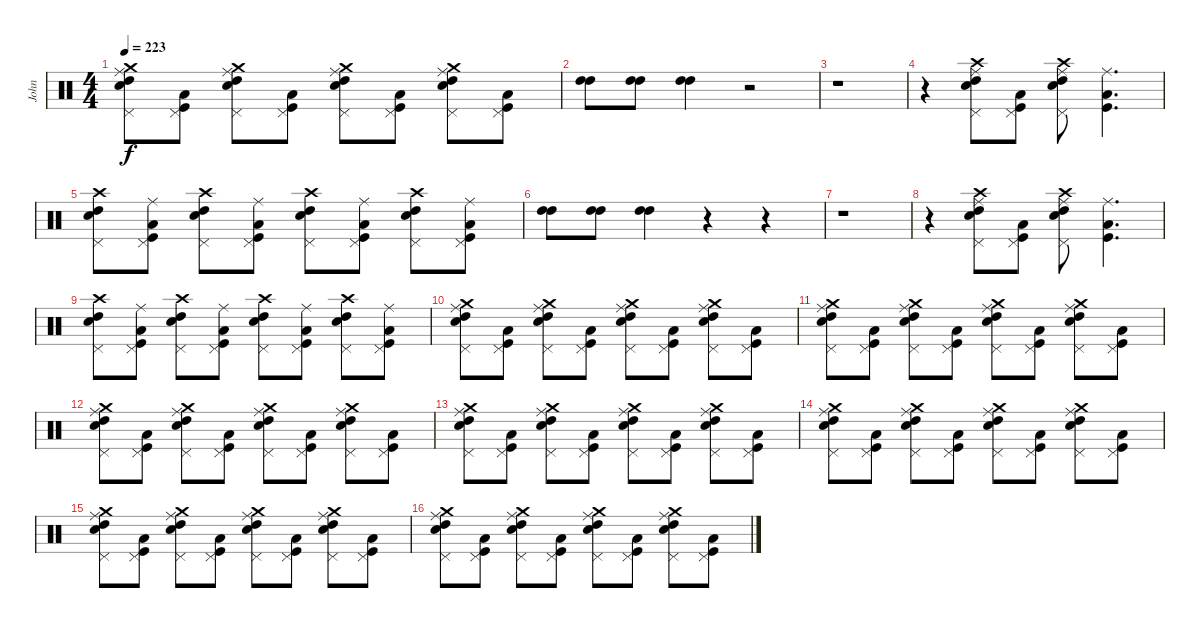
\track ("John" "John") {instrument percussion}
\staff {score}
\articulation defaults
\ts (4 4)
\tempo 223
\clef neutral
\ks c
("Crash medium (hit)" "Ride (middle)" "Snare (hit) 2" "High Tom (hit)" "Pedal Hi-Hat (hit)").8{dy f} ("Kick (hit)" "Low Tom (hit)" "Pedal Hi-Hat (hit)").8 ("Crash medium (hit)" "Ride (middle)" "Snare (hit) 2" "High Tom (hit)" "Pedal Hi-Hat (hit)").8 ("Kick (hit)" "Low Tom (hit)" "Pedal Hi-Hat (hit)").8 ("Crash medium (hit)" "Ride (middle)" "Snare (hit) 2" "High Tom (hit)" "Pedal Hi-Hat (hit)").8 ("Kick (hit)" "Low Tom (hit)" "Pedal Hi-Hat (hit)").8 ("Crash medium (hit)" "Ride (middle)" "Snare (hit) 2" "High Tom (hit)" "Pedal Hi-Hat (hit)").8 ("Kick (hit)" "Low Tom (hit)" "Pedal Hi-Hat (hit)").8 |
("High Tom (hit)" "High Tom (hit)").8 ("High Tom (hit)" "High Tom (hit)").8 ("High Tom (hit)" "High Tom (hit)").4 r.2 |
r.1 |
r.4 ("Crash high (hit)" "Ride (middle)" "Snare (hit) 2" "High Tom (hit)" "Pedal Hi-Hat (hit)").8 ("Kick (hit)" "Low Tom (hit)" "Pedal Hi-Hat (hit)").8 ("Crash high (hit)" "Ride (middle)" "Snare (hit) 2" "High Tom (hit)" "Pedal Hi-Hat (hit)").8 ("Ride (middle)" "Kick (hit)" "Low Tom (hit)").4{d} |
("Crash high (hit)" "Snare (hit) 2" "High Tom (hit)" "Pedal Hi-Hat (hit)").8 ("Ride (middle)" "Kick (hit)" "Low Tom (hit)" "Pedal Hi-Hat (hit)").8 ("Crash high (hit)" "Snare (hit) 2" "High Tom (hit)" "Pedal Hi-Hat (hit)").8 ("Ride (middle)" "Kick (hit)" "Low Tom (hit)" "Pedal Hi-Hat (hit)").8 ("Crash high (hit)" "Snare (hit) 2" "High Tom (hit)" "Pedal Hi-Hat (hit)").8 ("Ride (middle)" "Kick (hit)" "Low Tom (hit)" "Pedal Hi-Hat (hit)").8 ("Crash high (hit)" "Snare (hit) 2" "High Tom (hit)" "Pedal Hi-Hat (hit)").8 ("Ride (middle)" "Kick (hit)" "Low Tom (hit)" "Pedal Hi-Hat (hit)").8 |
("High Tom (hit)" "High Tom (hit)").8 ("High Tom (hit)" "High Tom (hit)").8 ("High Tom (hit)" "High Tom (hit)").4 r.4 r.4 |
r.1 |
r.4 ("Crash high (hit)" "Ride (middle)" "Snare (hit) 2" "High Tom (hit)" "Pedal Hi-Hat (hit)").8 ("Kick (hit)" "Low Tom (hit)" "Pedal Hi-Hat (hit)").8 ("Crash high (hit)" "Ride (middle)" "Snare (hit) 2" "High Tom (hit)" "Pedal Hi-Hat (hit)").8 ("Ride (middle)" "Kick (hit)" "Low Tom (hit)").4{d} |
("Crash high (hit)" "Snare (hit) 2" "High Tom (hit)" "Pedal Hi-Hat (hit)").8 ("Ride (middle)" "Kick (hit)" "Low Tom (hit)" "Pedal Hi-Hat (hit)").8 ("Crash high (hit)" "Snare (hit) 2" "High Tom (hit)" "Pedal Hi-Hat (hit)").8 ("Ride (middle)" "Kick (hit)" "Low Tom (hit)" "Pedal Hi-Hat (hit)").8 ("Crash high (hit)" "Snare (hit) 2" "High Tom (hit)" "Pedal Hi-Hat (hit)").8 ("Ride (middle)" "Kick (hit)" "Low Tom (hit)" "Pedal Hi-Hat (hit)").8 ("Crash high (hit)" "Snare (hit) 2" "High Tom (hit)" "Pedal Hi-Hat (hit)").8 ("Ride (middle)" "Kick (hit)" "Low Tom (hit)" "Pedal Hi-Hat (hit)").8 |
("Crash medium (hit)" "Ride (middle)" "Snare (hit) 2" "High Tom (hit)" "Pedal Hi-Hat (hit)").8 ("Kick (hit)" "Low Tom (hit)" "Pedal Hi-Hat (hit)").8 ("Crash medium (hit)" "Ride (middle)" "Snare (hit) 2" "High Tom (hit)" "Pedal Hi-Hat (hit)").8 ("Kick (hit)" "Low Tom (hit)" "Pedal Hi-Hat (hit)").8 ("Crash medium (hit)" "Ride (middle)" "Snare (hit) 2" "High Tom (hit)" "Pedal Hi-Hat (hit)").8 ("Kick (hit)" "Low Tom (hit)" "Pedal Hi-Hat (hit)").8 ("Crash medium (hit)" "Ride (middle)" "Snare (hit) 2" "High Tom (hit)" "Pedal Hi-Hat (hit)").8 ("Kick (hit)" "Low Tom (hit)" "Pedal Hi-Hat (hit)").8 |
("Crash medium (hit)" "Ride (middle)" "Snare (hit) 2" "High Tom (hit)" "Pedal Hi-Hat (hit)").8 ("Kick (hit)" "Low Tom (hit)" "Pedal Hi-Hat (hit)").8 ("Crash medium (hit)" "Ride (middle)" "Snare (hit) 2" "High Tom (hit)" "Pedal Hi-Hat (hit)").8 ("Kick (hit)" "Low Tom (hit)" "Pedal Hi-Hat (hit)").8 ("Crash medium (hit)" "Ride (middle)" "Snare (hit) 2" "High Tom (hit)" "Pedal Hi-Hat (hit)").8 ("Kick (hit)" "Low Tom (hit)" "Pedal Hi-Hat (hit)").8 ("Crash medium (hit)" "Ride (middle)" "Snare (hit) 2" "High Tom (hit)" "Pedal Hi-Hat (hit)").8 ("Kick (hit)" "Low Tom (hit)" "Pedal Hi-Hat (hit)").8 |
("Crash medium (hit)" "Ride (middle)" "Snare (hit) 2" "High Tom (hit)" "Pedal Hi-Hat (hit)").8 ("Kick (hit)" "Low Tom (hit)" "Pedal Hi-Hat (hit)").8 ("Crash medium (hit)" "Ride (middle)" "Snare (hit) 2" "High Tom (hit)" "Pedal Hi-Hat (hit)").8 ("Kick (hit)" "Low Tom (hit)" "Pedal Hi-Hat (hit)").8 ("Crash medium (hit)" "Ride (middle)" "Snare (hit) 2" "High Tom (hit)" "Pedal Hi-Hat (hit)").8 ("Kick (hit)" "Low Tom (hit)" "Pedal Hi-Hat (hit)").8 ("Crash medium (hit)" "Ride (middle)" "Snare (hit) 2" "High Tom (hit)" "Pedal Hi-Hat (hit)").8 ("Kick (hit)" "Low Tom (hit)" "Pedal Hi-Hat (hit)").8 |
("Crash medium (hit)" "Ride (middle)" "Snare (hit) 2" "High Tom (hit)" "Pedal Hi-Hat (hit)").8 ("Kick (hit)" "Low Tom (hit)" "Pedal Hi-Hat (hit)").8 ("Crash medium (hit)" "Ride (middle)" "Snare (hit) 2" "High Tom (hit)" "Pedal Hi-Hat (hit)").8 ("Kick (hit)" "Low Tom (hit)" "Pedal Hi-Hat (hit)").8 ("Crash medium (hit)" "Ride (middle)" "Snare (hit) 2" "High Tom (hit)" "Pedal Hi-Hat (hit)").8 ("Kick (hit)" "Low Tom (hit)" "Pedal Hi-Hat (hit)").8 ("Crash medium (hit)" "Ride (middle)" "Snare (hit) 2" "High Tom (hit)" "Pedal Hi-Hat (hit)").8 ("Kick (hit)" "Low Tom (hit)" "Pedal Hi-Hat (hit)").8 |
("Crash medium (hit)" "Ride (middle)" "Snare (hit) 2" "High Tom (hit)" "Pedal Hi-Hat (hit)").8 ("Kick (hit)" "Low Tom (hit)" "Pedal Hi-Hat (hit)").8 ("Crash medium (hit)" "Ride (middle)" "Snare (hit) 2" "High Tom (hit)" "Pedal Hi-Hat (hit)").8 ("Kick (hit)" "Low Tom (hit)" "Pedal Hi-Hat (hit)").8 ("Crash medium (hit)" "Ride (middle)" "Snare (hit) 2" "High Tom (hit)" "Pedal Hi-Hat (hit)").8 ("Kick (hit)" "Low Tom (hit)" "Pedal Hi-Hat (hit)").8 ("Crash medium (hit)" "Ride (middle)" "Snare (hit) 2" "High Tom (hit)" "Pedal Hi-Hat (hit)").8 ("Kick (hit)" "Low Tom (hit)" "Pedal Hi-Hat (hit)").8 |
("Crash medium (hit)" "Ride (middle)" "Snare (hit) 2" "High Tom (hit)" "Pedal Hi-Hat (hit)").8 ("Kick (hit)" "Low Tom (hit)" "Pedal Hi-Hat (hit)").8 ("Crash medium (hit)" "Ride (middle)" "Snare (hit) 2" "High Tom (hit)" "Pedal Hi-Hat (hit)").8 ("Kick (hit)" "Low Tom (hit)" "Pedal Hi-Hat (hit)").8 ("Crash medium (hit)" "Ride (middle)" "Snare (hit) 2" "High Tom (hit)" "Pedal Hi-Hat (hit)").8 ("Kick (hit)" "Low Tom (hit)" "Pedal Hi-Hat (hit)").8 ("Crash medium (hit)" "Ride (middle)" "Snare (hit) 2" "High Tom (hit)" "Pedal Hi-Hat (hit)").8 ("Kick (hit)" "Low Tom (hit)" "Pedal Hi-Hat (hit)").8 |
("Crash medium (hit)" "Ride (middle)" "Snare (hit) 2" "High Tom (hit)" "Pedal Hi-Hat (hit)").8 ("Kick (hit)" "Low Tom (hit)" "Pedal Hi-Hat (hit)").8 ("Crash medium (hit)" "Ride (middle)" "Snare (hit) 2" "High Tom (hit)" "Pedal Hi-Hat (hit)").8 ("Kick (hit)" "Low Tom (hit)" "Pedal Hi-Hat (hit)").8 ("Crash medium (hit)" "Ride (middle)" "Snare (hit) 2" "High Tom (hit)" "Pedal Hi-Hat (hit)").8 ("Kick (hit)" "Low Tom (hit)" "Pedal Hi-Hat (hit)").8 ("Crash medium (hit)" "Ride (middle)" "Snare (hit) 2" "High Tom (hit)" "Pedal Hi-Hat (hit)").8 ("Kick (hit)" "Low Tom (hit)" "Pedal Hi-Hat (hit)").8
